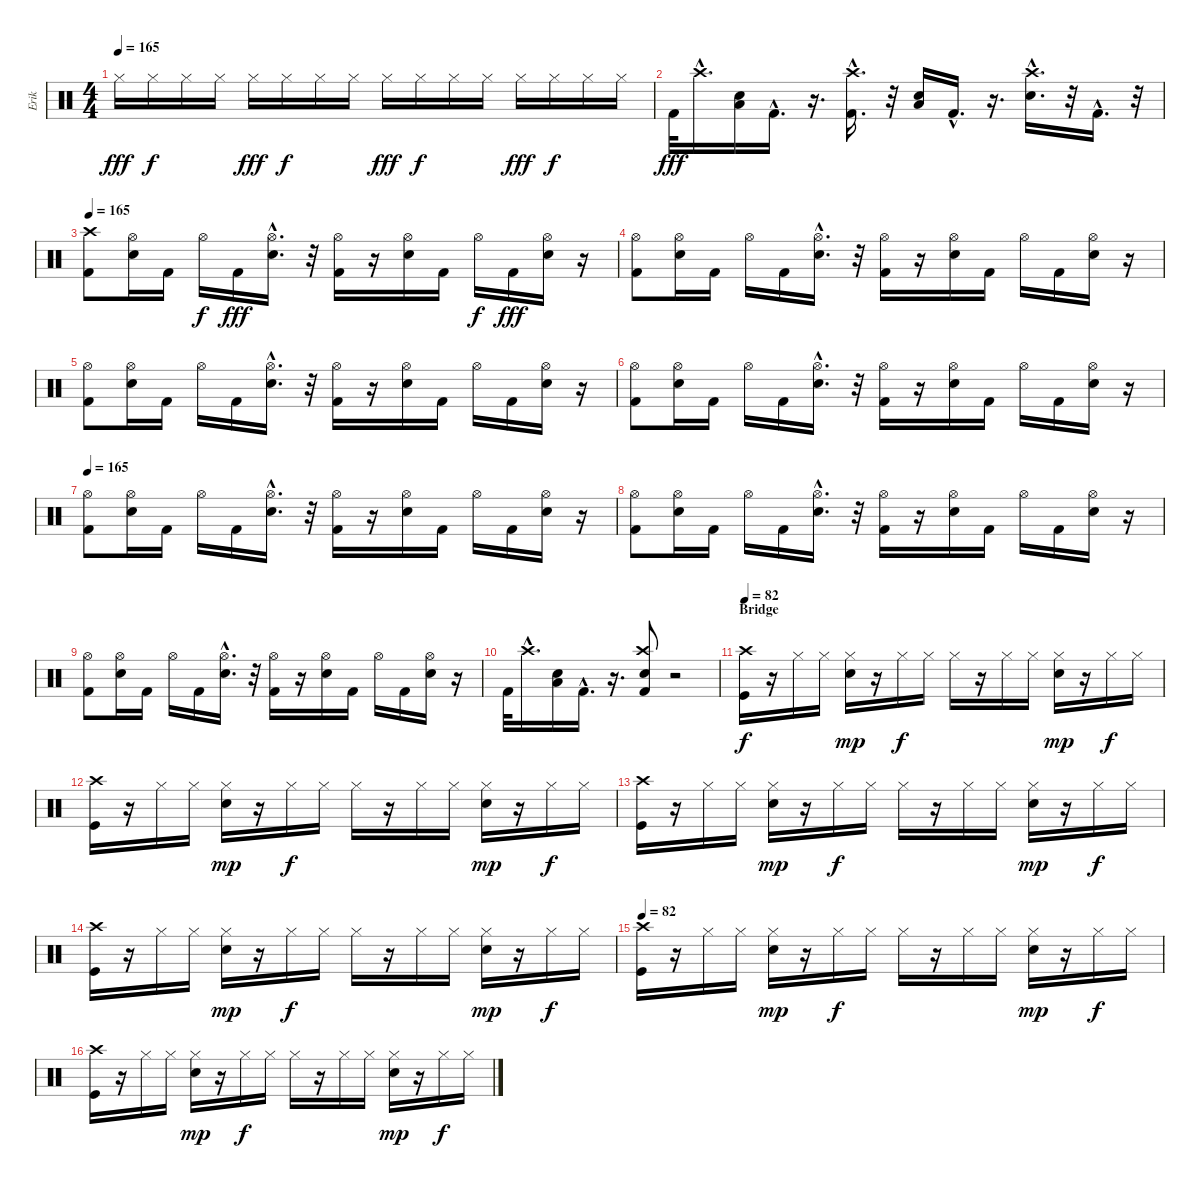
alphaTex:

\track ("Erik" "Erik") {instrument percussion}
\staff {score}
\articulation defaults
\ts (4 4)
\tempo 165
\clef neutral
\ks c "Hi-Hat (closed)".16{dy fff} "Hi-Hat (closed)".16{dy f} "Hi-Hat (closed)".16 "Hi-Hat (closed)".16 "Hi-Hat (closed)".16{dy fff} "Hi-Hat (closed)".16{dy f} "Hi-Hat (closed)".16 "Hi-Hat (closed)".16 "Hi-Hat (closed)".16{dy fff} "Hi-Hat (closed)".16{dy f} "Hi-Hat (closed)".16 "Hi-Hat (closed)".16 "Hi-Hat (closed)".16{dy fff} "Hi-Hat (closed)".16{dy f} "Hi-Hat (closed)".16 "Hi-Hat (closed)".16
|
"Kick (hit) 2".32{dy fff} "Crash high (hit)"{hac}.16{d} ("Low Tom (hit)" "Electric Snare (hit)").16 "Kick (hit) 2"{hac}.16{d} r.16{d} ("Kick (hit) 2"{hac} "Crash high (hit)"{hac}).16{d} r.32 ("Electric Snare (hit)" "Low Tom (hit)").16 "Kick (hit) 2"{hac}.16{d} r.16{d} ("Crash high (hit)"{hac} "Electric Snare (hit)"{hac}).16{d} r.32 "Kick (hit) 2"{hac}.16{d} r.32 |
\tempo 165
("Crash high (hit)" "Kick (hit) 2").8 ("Electric Snare (hit)" "Hi-Hat (open)").16 "Kick (hit) 2".16 "Hi-Hat (open)".16{dy f} "Kick (hit) 2".16{dy fff} ("Hi-Hat (open)"{hac} "Electric Snare (hit)"{hac}).16{d} r.32 ("Kick (hit) 2" "Hi-Hat (open)").16 r.16 ("Hi-Hat (open)" "Electric Snare (hit)").16 "Kick (hit) 2".16 "Hi-Hat (open)".16{dy f} "Kick (hit) 2".16{dy fff} ("Electric Snare (hit)" "Hi-Hat (open)").16 r.16 |
("Hi-Hat (open)" "Kick (hit) 2").8 ("Electric Snare (hit)" "Hi-Hat (open)").16 "Kick (hit) 2".16 "Hi-Hat (open)".16 "Kick (hit) 2".16 ("Hi-Hat (open)"{hac} "Electric Snare (hit)"{hac}).16{d} r.32 ("Kick (hit) 2" "Hi-Hat (open)").16 r.16 ("Hi-Hat (open)" "Electric Snare (hit)").16 "Kick (hit) 2".16 "Hi-Hat (open)".16 "Kick (hit) 2".16 ("Electric Snare (hit)" "Hi-Hat (open)").16 r.16 |
("Hi-Hat (open)" "Kick (hit) 2").8 ("Electric Snare (hit)" "Hi-Hat (open)").16 "Kick (hit) 2".16 "Hi-Hat (open)".16 "Kick (hit) 2".16 ("Hi-Hat (open)"{hac} "Electric Snare (hit)"{hac}).16{d} r.32 ("Kick (hit) 2" "Hi-Hat (open)").16 r.16 ("Hi-Hat (open)" "Electric Snare (hit)").16 "Kick (hit) 2".16 "Hi-Hat (open)".16 "Kick (hit) 2".16 ("Electric Snare (hit)" "Hi-Hat (open)").16 r.16 |
("Hi-Hat (open)" "Kick (hit) 2").8 ("Electric Snare (hit)" "Hi-Hat (open)").16 "Kick (hit) 2".16 "Hi-Hat (open)".16 "Kick (hit) 2".16 ("Hi-Hat (open)"{hac} "Electric Snare (hit)"{hac}).16{d} r.32 ("Kick (hit) 2" "Hi-Hat (open)").16 r.16 ("Hi-Hat (open)" "Electric Snare (hit)").16 "Kick (hit) 2".16 "Hi-Hat (open)".16 "Kick (hit) 2".16 ("Electric Snare (hit)" "Hi-Hat (open)").16 r.16 |
\tempo 165
("Hi-Hat (open)" "Kick (hit) 2").8 ("Electric Snare (hit)" "Hi-Hat (open)").16 "Kick (hit) 2".16 "Hi-Hat (open)".16 "Kick (hit) 2".16 ("Hi-Hat (open)"{hac} "Electric Snare (hit)"{hac}).16{d} r.32 ("Kick (hit) 2" "Hi-Hat (open)").16 r.16 ("Hi-Hat (open)" "Electric Snare (hit)").16 "Kick (hit) 2".16 "Hi-Hat (open)".16 "Kick (hit) 2".16 ("Electric Snare (hit)" "Hi-Hat (open)").16 r.16 |
("Hi-Hat (open)" "Kick (hit) 2").8 ("Electric Snare (hit)" "Hi-Hat (open)").16 "Kick (hit) 2".16 "Hi-Hat (open)".16 "Kick (hit) 2".16 ("Hi-Hat (open)"{hac} "Electric Snare (hit)"{hac}).16{d} r.32 ("Kick (hit) 2" "Hi-Hat (open)").16 r.16 ("Hi-Hat (open)" "Electric Snare (hit)").16 "Kick (hit) 2".16 "Hi-Hat (open)".16 "Kick (hit) 2".16 ("Electric Snare (hit)" "Hi-Hat (open)").16 r.16 |
("Hi-Hat (open)" "Kick (hit) 2").8 ("Electric Snare (hit)" "Hi-Hat (open)").16 "Kick (hit) 2".16 "Hi-Hat (open)".16 "Kick (hit) 2".16 ("Hi-Hat (open)"{hac} "Electric Snare (hit)"{hac}).16{d} r.32 ("Kick (hit) 2" "Hi-Hat (open)").16 r.16 ("Hi-Hat (open)" "Electric Snare (hit)").16 "Kick (hit) 2".16 "Hi-Hat (open)".16 "Kick (hit) 2".16 ("Electric Snare (hit)" "Hi-Hat (open)").16 r.16 |
"Kick (hit) 2".32 "Crash high (hit)"{hac}.16{d} ("Low Tom (hit)" "Electric Snare (hit)").16 "Kick (hit) 2"{hac}.16{d} r.16{d} ("Electric Snare (hit)" "Kick (hit) 2" "Crash high (hit)").8 r.2 |
\section ("" "Bridge")
\tempo 82
("Kick (hit)" "Crash high (hit)").16{dy f} r.16 "Hi-Hat (closed)".16 "Hi-Hat (closed)".16 ("Hi-Hat (closed)" "Snare (hit) 2").16{dy mp} r.16 "Hi-Hat (closed)".16{dy f} "Hi-Hat (closed)".16 "Hi-Hat (closed)".16 r.16 "Hi-Hat (closed)".16 "Hi-Hat (closed)".16 ("Hi-Hat (closed)" "Snare (hit) 2").16{dy mp} r.16 "Hi-Hat (closed)".16{dy f} "Hi-Hat (closed)".16 |
("Kick (hit)" "Crash high (hit)").16 r.16 "Hi-Hat (closed)".16 "Hi-Hat (closed)".16 ("Hi-Hat (closed)" "Snare (hit) 2").16{dy mp} r.16 "Hi-Hat (closed)".16{dy f} "Hi-Hat (closed)".16 "Hi-Hat (closed)".16 r.16 "Hi-Hat (closed)".16 "Hi-Hat (closed)".16 ("Hi-Hat (closed)" "Snare (hit) 2").16{dy mp} r.16 "Hi-Hat (closed)".16{dy f} "Hi-Hat (closed)".16 |
("Kick (hit)" "Crash high (hit)").16 r.16 "Hi-Hat (closed)".16 "Hi-Hat (closed)".16 ("Hi-Hat (closed)" "Snare (hit) 2").16{dy mp} r.16 "Hi-Hat (closed)".16{dy f} "Hi-Hat (closed)".16 "Hi-Hat (closed)".16 r.16 "Hi-Hat (closed)".16 "Hi-Hat (closed)".16 ("Hi-Hat (closed)" "Snare (hit) 2").16{dy mp} r.16 "Hi-Hat (closed)".16{dy f} "Hi-Hat (closed)".16 |
("Kick (hit)" "Crash high (hit)").16 r.16 "Hi-Hat (closed)".16 "Hi-Hat (closed)".16 ("Hi-Hat (closed)" "Snare (hit) 2").16{dy mp} r.16 "Hi-Hat (closed)".16{dy f} "Hi-Hat (closed)".16 "Hi-Hat (closed)".16 r.16 "Hi-Hat (closed)".16 "Hi-Hat (closed)".16 ("Hi-Hat (closed)" "Snare (hit) 2").16{dy mp} r.16 "Hi-Hat (closed)".16{dy f} "Hi-Hat (closed)".16 |
\tempo 82
("Kick (hit)" "Crash high (hit)").16 r.16 "Hi-Hat (closed)".16 "Hi-Hat (closed)".16 ("Hi-Hat (closed)" "Snare (hit) 2").16{dy mp} r.16 "Hi-Hat (closed)".16{dy f} "Hi-Hat (closed)".16 "Hi-Hat (closed)".16 r.16 "Hi-Hat (closed)".16 "Hi-Hat (closed)".16 ("Hi-Hat (closed)" "Snare (hit) 2").16{dy mp} r.16 "Hi-Hat (closed)".16{dy f} "Hi-Hat (closed)".16 |
("Kick (hit)" "Crash high (hit)").16 r.16 "Hi-Hat (closed)".16 "Hi-Hat (closed)".16 ("Hi-Hat (closed)" "Snare (hit) 2").16{dy mp} r.16 "Hi-Hat (closed)".16{dy f} "Hi-Hat (closed)".16 "Hi-Hat (closed)".16 r.16 "Hi-Hat (closed)".16 "Hi-Hat (closed)".16 ("Hi-Hat (closed)" "Snare (hit) 2").16{dy mp} r.16 "Hi-Hat (closed)".16{dy f} "Hi-Hat (closed)".16
